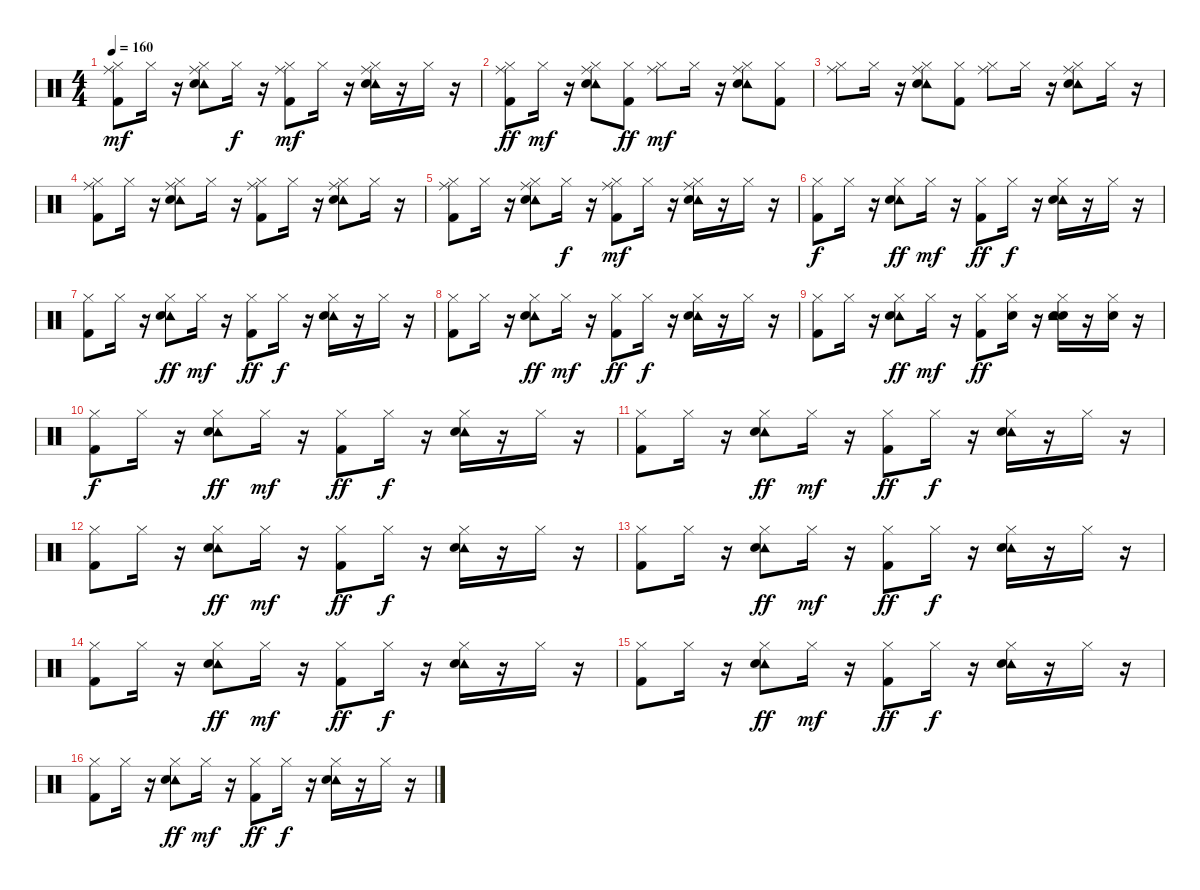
\track "" {instrument percussion}
\staff {score}
\articulation defaults
\ts (4 4)
\tempo 160
\clef neutral
\ks c
("Ride (middle)" "Hi-Hat (closed)" "Kick (hit) 2").8{dy mf} "Hi-Hat (closed)".16 r.16 ("Tambourine (hit)" "Ride (middle)" "Hi-Hat (closed)" "Snare (hit) 2").8 "Hi-Hat (closed)".16{dy f} r.16 ("Ride (middle)" "Hi-Hat (closed)" "Kick (hit) 2").8{dy mf} "Hi-Hat (closed)".16 r.16 ("Tambourine (hit)" "Ride (middle)" "Hi-Hat (closed)" "Snare (hit) 2").16 r.16 "Hi-Hat (closed)".16 r.16 |
("Ride (middle)" "Hi-Hat (closed)" "Kick (hit) 2").8{dy ff} "Hi-Hat (closed)".16{dy mf} r.16 ("Tambourine (hit)" "Ride (middle)" "Hi-Hat (closed)" "Snare (hit) 2").8 ("Hi-Hat (closed)" "Kick (hit) 2").8{dy ff} ("Ride (middle)" "Hi-Hat (closed)").8{dy mf} "Hi-Hat (closed)".16 r.16 ("Tambourine (hit)" "Ride (middle)" "Hi-Hat (closed)" "Snare (hit) 2").8 ("Hi-Hat (closed)" "Kick (hit) 2").8 |
("Ride (middle)" "Hi-Hat (closed)").8 "Hi-Hat (closed)".16 r.16 ("Tambourine (hit)" "Ride (middle)" "Hi-Hat (closed)" "Snare (hit) 2").8 ("Hi-Hat (closed)" "Kick (hit) 2").8 ("Ride (middle)" "Hi-Hat (closed)").8 "Hi-Hat (closed)".16 r.16 ("Tambourine (hit)" "Ride (middle)" "Hi-Hat (closed)" "Snare (hit) 2").8 "Hi-Hat (closed)".16 r.16 |
("Ride (middle)" "Hi-Hat (closed)" "Kick (hit) 2").8 "Hi-Hat (closed)".16 r.16 ("Tambourine (hit)" "Ride (middle)" "Hi-Hat (closed)" "Snare (hit) 2").8 "Hi-Hat (closed)".16 r.16 ("Ride (middle)" "Hi-Hat (closed)" "Kick (hit) 2").8 "Hi-Hat (closed)".16 r.16 ("Tambourine (hit)" "Ride (middle)" "Hi-Hat (closed)" "Snare (hit) 2").8 "Hi-Hat (closed)".16 r.16 |
("Ride (middle)" "Hi-Hat (closed)" "Kick (hit) 2").8 "Hi-Hat (closed)".16 r.16 ("Tambourine (hit)" "Ride (middle)" "Hi-Hat (closed)" "Snare (hit) 2").8 "Hi-Hat (closed)".16{dy f} r.16 ("Ride (middle)" "Hi-Hat (closed)" "Kick (hit) 2").8{dy mf} "Hi-Hat (closed)".16 r.16 ("Tambourine (hit)" "Ride (middle)" "Hi-Hat (closed)" "Snare (hit) 2").16 r.16 "Hi-Hat (closed)".16 r.16 |
("Hi-Hat (closed)" "Kick (hit) 2").8{dy f} "Hi-Hat (closed)".16 r.16 ("Tambourine (hit)" "Hi-Hat (closed)" "Snare (hit) 2").8{dy ff} "Hi-Hat (closed)".16{dy mf} r.16 ("Hi-Hat (closed)" "Kick (hit) 2").8{dy ff} "Hi-Hat (closed)".16{dy f} r.16 ("Tambourine (hit)" "Hi-Hat (closed)" "Snare (hit) 2").16 r.16 "Hi-Hat (closed)".16 r.16 |
("Hi-Hat (closed)" "Kick (hit) 2").8 "Hi-Hat (closed)".16 r.16 ("Tambourine (hit)" "Hi-Hat (closed)" "Snare (hit) 2").8{dy ff} "Hi-Hat (closed)".16{dy mf} r.16 ("Hi-Hat (closed)" "Kick (hit) 2").8{dy ff} "Hi-Hat (closed)".16{dy f} r.16 ("Tambourine (hit)" "Hi-Hat (closed)" "Snare (hit) 2").16 r.16 "Hi-Hat (closed)".16 r.16 |
("Hi-Hat (closed)" "Kick (hit) 2").8 "Hi-Hat (closed)".16 r.16 ("Tambourine (hit)" "Hi-Hat (closed)" "Snare (hit) 2").8{dy ff} "Hi-Hat (closed)".16{dy mf} r.16 ("Hi-Hat (closed)" "Kick (hit) 2").8{dy ff} "Hi-Hat (closed)".16{dy f} r.16 ("Tambourine (hit)" "Hi-Hat (closed)" "Snare (hit) 2").16 r.16 "Hi-Hat (closed)".16 r.16 |
("Hi-Hat (closed)" "Kick (hit) 2").8 "Hi-Hat (closed)".16 r.16 ("Tambourine (hit)" "Hi-Hat (closed)" "Snare (hit) 2").8{dy ff} "Hi-Hat (closed)".16{dy mf} r.16 ("Hi-Hat (closed)" "Kick (hit) 2").8{dy ff} ("Electric Snare (hit)" "Hi-Hat (closed)").16 r.16 ("Electric Snare (hit)" "Tambourine (hit)" "Hi-Hat (closed)" "Snare (hit) 2").16 r.16 ("Electric Snare (hit)" "Hi-Hat (closed)").16 r.16 |
("Hi-Hat (closed)" "Kick (hit) 2").8{dy f} "Hi-Hat (closed)".16 r.16 ("Tambourine (hit)" "Hi-Hat (closed)" "Snare (hit) 2").8{dy ff} "Hi-Hat (closed)".16{dy mf} r.16 ("Hi-Hat (closed)" "Kick (hit) 2").8{dy ff} "Hi-Hat (closed)".16{dy f} r.16 ("Tambourine (hit)" "Hi-Hat (closed)" "Snare (hit) 2").16 r.16 "Hi-Hat (closed)".16 r.16 |
("Hi-Hat (closed)" "Kick (hit) 2").8 "Hi-Hat (closed)".16 r.16 ("Tambourine (hit)" "Hi-Hat (closed)" "Snare (hit) 2").8{dy ff} "Hi-Hat (closed)".16{dy mf} r.16 ("Hi-Hat (closed)" "Kick (hit) 2").8{dy ff} "Hi-Hat (closed)".16{dy f} r.16 ("Tambourine (hit)" "Hi-Hat (closed)" "Snare (hit) 2").16 r.16 "Hi-Hat (closed)".16 r.16 |
("Hi-Hat (closed)" "Kick (hit) 2").8 "Hi-Hat (closed)".16 r.16 ("Tambourine (hit)" "Hi-Hat (closed)" "Snare (hit) 2").8{dy ff} "Hi-Hat (closed)".16{dy mf} r.16 ("Hi-Hat (closed)" "Kick (hit) 2").8{dy ff} "Hi-Hat (closed)".16{dy f} r.16 ("Tambourine (hit)" "Hi-Hat (closed)" "Snare (hit) 2").16 r.16 "Hi-Hat (closed)".16 r.16 |
("Hi-Hat (closed)" "Kick (hit) 2").8 "Hi-Hat (closed)".16 r.16 ("Tambourine (hit)" "Hi-Hat (closed)" "Snare (hit) 2").8{dy ff} "Hi-Hat (closed)".16{dy mf} r.16 ("Hi-Hat (closed)" "Kick (hit) 2").8{dy ff} "Hi-Hat (closed)".16{dy f} r.16 ("Tambourine (hit)" "Hi-Hat (closed)" "Snare (hit) 2").16 r.16 "Hi-Hat (closed)".16 r.16 |
("Hi-Hat (closed)" "Kick (hit) 2").8 "Hi-Hat (closed)".16 r.16 ("Tambourine (hit)" "Hi-Hat (closed)" "Snare (hit) 2").8{dy ff} "Hi-Hat (closed)".16{dy mf} r.16 ("Hi-Hat (closed)" "Kick (hit) 2").8{dy ff} "Hi-Hat (closed)".16{dy f} r.16 ("Tambourine (hit)" "Hi-Hat (closed)" "Snare (hit) 2").16 r.16 "Hi-Hat (closed)".16 r.16 |
("Hi-Hat (closed)" "Kick (hit) 2").8 "Hi-Hat (closed)".16 r.16 ("Tambourine (hit)" "Hi-Hat (closed)" "Snare (hit) 2").8{dy ff} "Hi-Hat (closed)".16{dy mf} r.16 ("Hi-Hat (closed)" "Kick (hit) 2").8{dy ff} "Hi-Hat (closed)".16{dy f} r.16 ("Tambourine (hit)" "Hi-Hat (closed)" "Snare (hit) 2").16 r.16 "Hi-Hat (closed)".16 r.16 |
("Hi-Hat (closed)" "Kick (hit) 2").8 "Hi-Hat (closed)".16 r.16 ("Tambourine (hit)" "Hi-Hat (closed)" "Snare (hit) 2").8{dy ff} "Hi-Hat (closed)".16{dy mf} r.16 ("Hi-Hat (closed)" "Kick (hit) 2").8{dy ff} "Hi-Hat (closed)".16{dy f} r.16 ("Tambourine (hit)" "Hi-Hat (closed)" "Snare (hit) 2").16 r.16 "Hi-Hat (closed)".16 r.16
